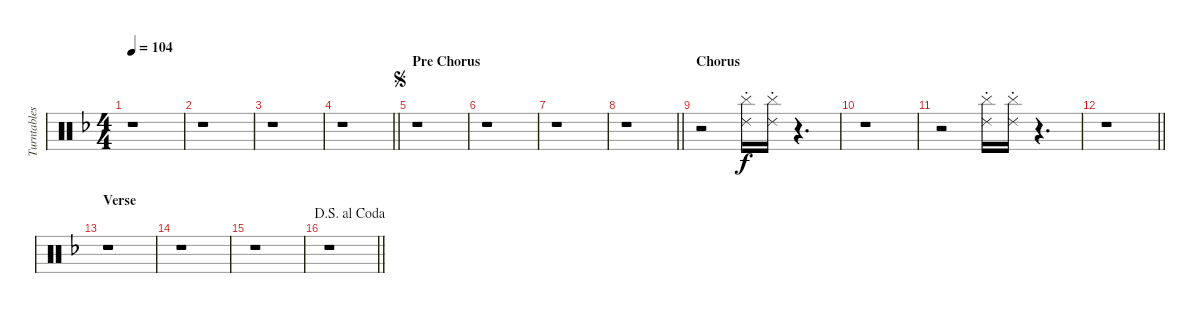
\track ("Turntables" "Turntables") {instrument percussion}
\staff {score}
\articulation defaults
\ts (4 4)
\tempo 104
\clef neutral
\ks f
r.1{dy f} |
r.1 |
r.1 |
\barLineRight lightlight
r.1 |
\section ("" "Pre Chorus")
\jump segno
r.1 |
r.1 |
r.1 |
\barLineRight lightlight
r.1 |
\section ("" "Chorus")
r.2 ("Ride (choke) 2" "Cymbal (hit)").16 ("Cymbal (hit)" "Ride (choke) 2").16 r.4{d} |
r.1 |
r.2 ("Ride (choke) 2" "Cymbal (hit)").16 ("Cymbal (hit)" "Ride (choke) 2").16 r.4{d} |
\barLineRight lightlight
r.1 |
\section ("" "Verse")
r.1 |
r.1 |
r.1 |
\jump dalsegnoalcoda
\barLineRight lightlight
r.1
